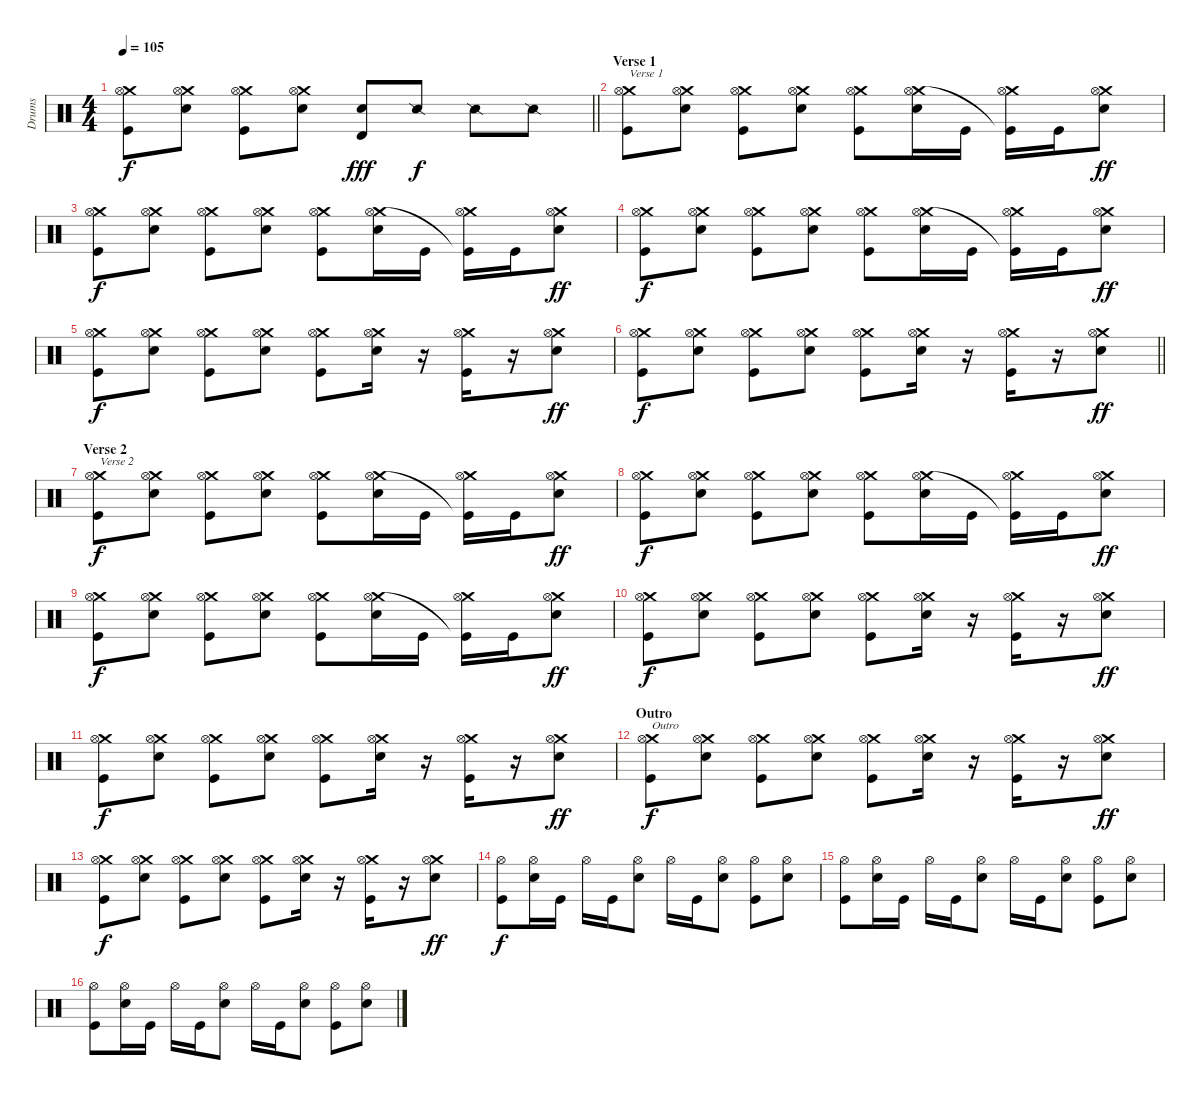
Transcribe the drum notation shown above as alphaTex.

\track ("Drums" "Drums") {instrument percussion}
\staff {score}
\articulation defaults
\ts (4 4)
\tempo 105
\clef neutral
\barLineRight lightlight
\ks c
("Crash medium (hit)" "Hi-Hat (open)" "Kick (hit)").8{dy f} ("Crash medium (hit)" "Electric Snare (hit)" "Hi-Hat (open)").8 ("Crash medium (hit)" "Hi-Hat (open)" "Kick (hit)").8 ("Crash medium (hit)" "Electric Snare (hit)" "Hi-Hat (open)").8 ("Timbale high (hit)" "Electric Snare (hit)").8{dy fff} "Snare (side stick) 2".8{dy f} "Snare (side stick) 2".8 "Snare (side stick) 2".8 |
\section ("" "Verse 1")
("Crash medium (hit)" "Hi-Hat (open)" "Kick (hit)").8{txt "Verse 1"} ("Crash medium (hit)" "Electric Snare (hit)" "Hi-Hat (open)").8 ("Crash medium (hit)" "Hi-Hat (open)" "Kick (hit)").8 ("Crash medium (hit)" "Electric Snare (hit)" "Hi-Hat (open)").8 ("Crash medium (hit)" "Hi-Hat (open)" "Kick (hit)").8 ("Crash medium (hit)" "Electric Snare (hit)" "Hi-Hat (open)").16 "Kick (hit)".16 ("Crash medium (hit)" "Hi-Hat (open)" "Kick (hit)"{t}).16 "Kick (hit)".16 ("Crash medium (hit)" "Electric Snare (hit)" "Hi-Hat (open)").8{dy ff} |
("Crash medium (hit)" "Hi-Hat (open)" "Kick (hit)").8{dy f} ("Crash medium (hit)" "Electric Snare (hit)" "Hi-Hat (open)").8 ("Crash medium (hit)" "Hi-Hat (open)" "Kick (hit)").8 ("Crash medium (hit)" "Electric Snare (hit)" "Hi-Hat (open)").8 ("Crash medium (hit)" "Hi-Hat (open)" "Kick (hit)").8 ("Crash medium (hit)" "Electric Snare (hit)" "Hi-Hat (open)").16 "Kick (hit)".16 ("Crash medium (hit)" "Hi-Hat (open)" "Kick (hit)"{t}).16 "Kick (hit)".16 ("Crash medium (hit)" "Electric Snare (hit)" "Hi-Hat (open)").8{dy ff} |
("Crash medium (hit)" "Hi-Hat (open)" "Kick (hit)").8{dy f} ("Crash medium (hit)" "Electric Snare (hit)" "Hi-Hat (open)").8 ("Crash medium (hit)" "Hi-Hat (open)" "Kick (hit)").8 ("Crash medium (hit)" "Electric Snare (hit)" "Hi-Hat (open)").8 ("Crash medium (hit)" "Hi-Hat (open)" "Kick (hit)").8 ("Crash medium (hit)" "Electric Snare (hit)" "Hi-Hat (open)").16 "Kick (hit)".16 ("Crash medium (hit)" "Hi-Hat (open)" "Kick (hit)"{t}).16 "Kick (hit)".16 ("Crash medium (hit)" "Electric Snare (hit)" "Hi-Hat (open)").8{dy ff} |
("Crash medium (hit)" "Hi-Hat (open)" "Kick (hit)").8{dy f} ("Crash medium (hit)" "Electric Snare (hit)" "Hi-Hat (open)").8 ("Crash medium (hit)" "Hi-Hat (open)" "Kick (hit)").8 ("Crash medium (hit)" "Electric Snare (hit)" "Hi-Hat (open)").8 ("Crash medium (hit)" "Hi-Hat (open)" "Kick (hit)").8 ("Crash medium (hit)" "Electric Snare (hit)" "Hi-Hat (open)").16 r.16 ("Crash medium (hit)" "Hi-Hat (open)" "Kick (hit)").16 r.16 ("Crash medium (hit)" "Electric Snare (hit)" "Hi-Hat (open)").8{dy ff} |
\barLineRight lightlight
("Crash medium (hit)" "Hi-Hat (open)" "Kick (hit)").8{dy f} ("Crash medium (hit)" "Electric Snare (hit)" "Hi-Hat (open)").8 ("Crash medium (hit)" "Hi-Hat (open)" "Kick (hit)").8 ("Crash medium (hit)" "Electric Snare (hit)" "Hi-Hat (open)").8 ("Crash medium (hit)" "Hi-Hat (open)" "Kick (hit)").8 ("Crash medium (hit)" "Electric Snare (hit)" "Hi-Hat (open)").16 r.16 ("Crash medium (hit)" "Hi-Hat (open)" "Kick (hit)").16 r.16 ("Crash medium (hit)" "Electric Snare (hit)" "Hi-Hat (open)").8{dy ff} |
\section ("" "Verse 2")
("Crash medium (hit)" "Hi-Hat (open)" "Kick (hit)").8{txt "Verse 2" dy f} ("Crash medium (hit)" "Electric Snare (hit)" "Hi-Hat (open)").8 ("Crash medium (hit)" "Hi-Hat (open)" "Kick (hit)").8 ("Crash medium (hit)" "Electric Snare (hit)" "Hi-Hat (open)").8 ("Crash medium (hit)" "Hi-Hat (open)" "Kick (hit)").8 ("Crash medium (hit)" "Electric Snare (hit)" "Hi-Hat (open)").16 "Kick (hit)".16 ("Crash medium (hit)" "Hi-Hat (open)" "Kick (hit)"{t}).16 "Kick (hit)".16 ("Crash medium (hit)" "Electric Snare (hit)" "Hi-Hat (open)").8{dy ff} |
("Crash medium (hit)" "Hi-Hat (open)" "Kick (hit)").8{dy f} ("Crash medium (hit)" "Electric Snare (hit)" "Hi-Hat (open)").8 ("Crash medium (hit)" "Hi-Hat (open)" "Kick (hit)").8 ("Crash medium (hit)" "Electric Snare (hit)" "Hi-Hat (open)").8 ("Crash medium (hit)" "Hi-Hat (open)" "Kick (hit)").8 ("Crash medium (hit)" "Electric Snare (hit)" "Hi-Hat (open)").16 "Kick (hit)".16 ("Crash medium (hit)" "Hi-Hat (open)" "Kick (hit)"{t}).16 "Kick (hit)".16 ("Crash medium (hit)" "Electric Snare (hit)" "Hi-Hat (open)").8{dy ff} |
("Crash medium (hit)" "Hi-Hat (open)" "Kick (hit)").8{dy f} ("Crash medium (hit)" "Electric Snare (hit)" "Hi-Hat (open)").8 ("Crash medium (hit)" "Hi-Hat (open)" "Kick (hit)").8 ("Crash medium (hit)" "Electric Snare (hit)" "Hi-Hat (open)").8 ("Crash medium (hit)" "Hi-Hat (open)" "Kick (hit)").8 ("Crash medium (hit)" "Electric Snare (hit)" "Hi-Hat (open)").16 "Kick (hit)".16 ("Crash medium (hit)" "Hi-Hat (open)" "Kick (hit)"{t}).16 "Kick (hit)".16 ("Crash medium (hit)" "Electric Snare (hit)" "Hi-Hat (open)").8{dy ff} |
("Crash medium (hit)" "Hi-Hat (open)" "Kick (hit)").8{dy f} ("Crash medium (hit)" "Electric Snare (hit)" "Hi-Hat (open)").8 ("Crash medium (hit)" "Hi-Hat (open)" "Kick (hit)").8 ("Crash medium (hit)" "Electric Snare (hit)" "Hi-Hat (open)").8 ("Crash medium (hit)" "Hi-Hat (open)" "Kick (hit)").8 ("Crash medium (hit)" "Electric Snare (hit)" "Hi-Hat (open)").16 r.16 ("Crash medium (hit)" "Hi-Hat (open)" "Kick (hit)").16 r.16 ("Crash medium (hit)" "Electric Snare (hit)" "Hi-Hat (open)").8{dy ff} |
("Crash medium (hit)" "Hi-Hat (open)" "Kick (hit)").8{dy f} ("Crash medium (hit)" "Electric Snare (hit)" "Hi-Hat (open)").8 ("Crash medium (hit)" "Hi-Hat (open)" "Kick (hit)").8 ("Crash medium (hit)" "Electric Snare (hit)" "Hi-Hat (open)").8 ("Crash medium (hit)" "Hi-Hat (open)" "Kick (hit)").8 ("Crash medium (hit)" "Electric Snare (hit)" "Hi-Hat (open)").16 r.16 ("Crash medium (hit)" "Hi-Hat (open)" "Kick (hit)").16 r.16 ("Crash medium (hit)" "Electric Snare (hit)" "Hi-Hat (open)").8{dy ff} |
\section ("" "Outro")
("Crash medium (hit)" "Hi-Hat (open)" "Kick (hit)").8{txt "Outro" dy f} ("Crash medium (hit)" "Electric Snare (hit)" "Hi-Hat (open)").8 ("Crash medium (hit)" "Hi-Hat (open)" "Kick (hit)").8 ("Crash medium (hit)" "Electric Snare (hit)" "Hi-Hat (open)").8 ("Crash medium (hit)" "Hi-Hat (open)" "Kick (hit)").8 ("Crash medium (hit)" "Electric Snare (hit)" "Hi-Hat (open)").16 r.16 ("Crash medium (hit)" "Hi-Hat (open)" "Kick (hit)").16 r.16 ("Crash medium (hit)" "Electric Snare (hit)" "Hi-Hat (open)").8{dy ff} |
("Crash medium (hit)" "Hi-Hat (open)" "Kick (hit)").8{dy f} ("Crash medium (hit)" "Electric Snare (hit)" "Hi-Hat (open)").8 ("Crash medium (hit)" "Hi-Hat (open)" "Kick (hit)").8 ("Crash medium (hit)" "Electric Snare (hit)" "Hi-Hat (open)").8 ("Crash medium (hit)" "Hi-Hat (open)" "Kick (hit)").8 ("Crash medium (hit)" "Electric Snare (hit)" "Hi-Hat (open)").16 r.16 ("Crash medium (hit)" "Hi-Hat (open)" "Kick (hit)").16 r.16 ("Crash medium (hit)" "Electric Snare (hit)" "Hi-Hat (open)").8{dy ff} |
("Hi-Hat (open)" "Kick (hit)").8{dy f} ("Hi-Hat (open)" "Electric Snare (hit)").16 "Kick (hit)".16 "Hi-Hat (open)".16 "Kick (hit)".16 ("Hi-Hat (open)" "Electric Snare (hit)").8 "Hi-Hat (open)".16 "Kick (hit)".16 ("Hi-Hat (open)" "Electric Snare (hit)").8 ("Hi-Hat (open)" "Kick (hit)").8 ("Hi-Hat (open)" "Electric Snare (hit)").8 |
("Hi-Hat (open)" "Kick (hit)").8 ("Hi-Hat (open)" "Electric Snare (hit)").16 "Kick (hit)".16 "Hi-Hat (open)".16 "Kick (hit)".16 ("Hi-Hat (open)" "Electric Snare (hit)").8 "Hi-Hat (open)".16 "Kick (hit)".16 ("Hi-Hat (open)" "Electric Snare (hit)").8 ("Hi-Hat (open)" "Kick (hit)").8 ("Hi-Hat (open)" "Electric Snare (hit)").8 |
("Hi-Hat (open)" "Kick (hit)").8 ("Hi-Hat (open)" "Electric Snare (hit)").16 "Kick (hit)".16 "Hi-Hat (open)".16 "Kick (hit)".16 ("Hi-Hat (open)" "Electric Snare (hit)").8 "Hi-Hat (open)".16 "Kick (hit)".16 ("Hi-Hat (open)" "Electric Snare (hit)").8 ("Hi-Hat (open)" "Kick (hit)").8 ("Hi-Hat (open)" "Electric Snare (hit)").8
